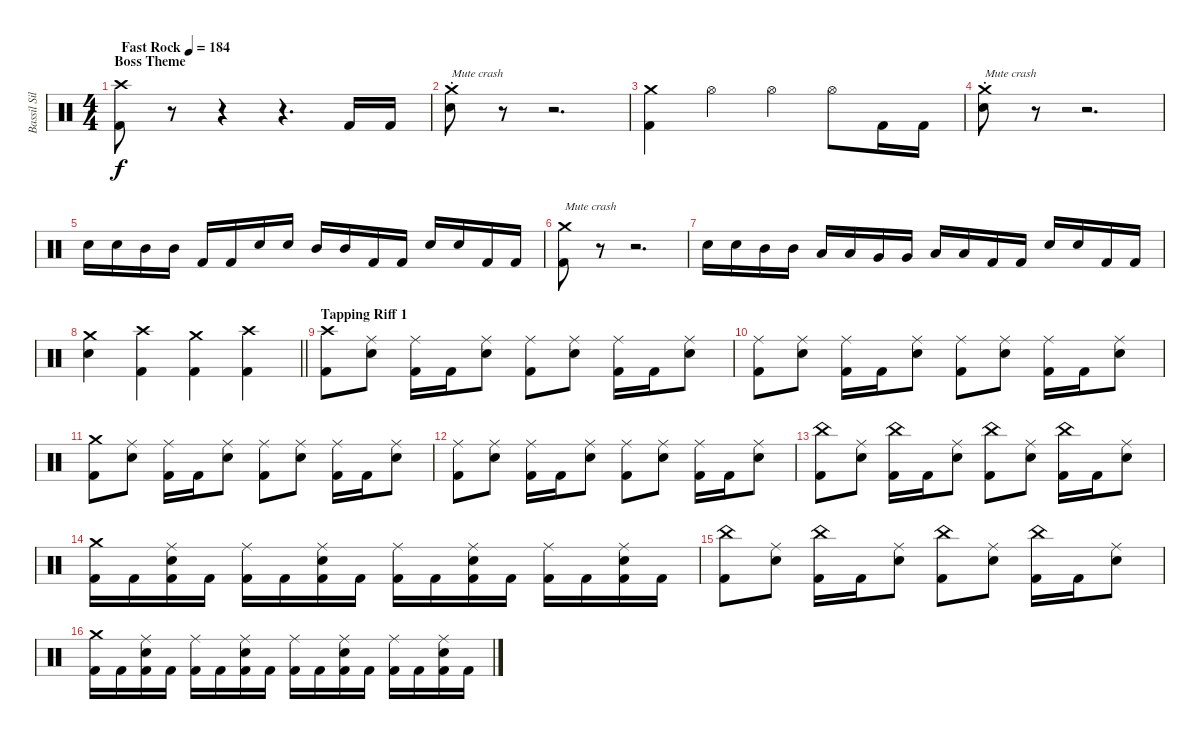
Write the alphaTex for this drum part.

\track ("Bassil Silver-Hajo" "Bassil Sil") {instrument percussion}
\staff {score}
\articulation defaults
\ts (4 4)
\section ("" "Boss Theme")
\tempo (184 "Fast Rock")
\clef neutral
\ks c
("Crash high (hit)" "Kick (hit) 2").8{dy f} r.8 r.4 r.4{d} "Kick (hit) 2".16 "Kick (hit) 2".16 |
("Crash medium (hit)"{st} "Snare (hit) 2").8{txt "Mute crash"} r.8 r.2{d} |
("Crash medium (hit)" "Kick (hit) 2").4 "Hi-Hat (open)".4 "Hi-Hat (open)".4 "Hi-Hat (open)".8 "Kick (hit) 2".16 "Kick (hit) 2".16 |
("Crash medium (hit)"{st} "Snare (hit) 2").8{txt "Mute crash"} r.8 r.2{d} |
"Snare (hit) 2".16 "Snare (hit) 2".16 "Mid Tom (hit)".16 "Mid Tom (hit)".16 "Kick (hit) 2".16 "Kick (hit) 2".16 "Snare (hit) 2".16 "Snare (hit) 2".16 "Mid Tom (hit)".16 "Mid Tom (hit)".16 "Kick (hit) 2".16 "Kick (hit) 2".16 "Snare (hit) 2".16 "Snare (hit) 2".16 "Kick (hit) 2".16 "Kick (hit) 2".16 |
("Crash medium (hit)" "Kick (hit) 2").8{txt "Mute crash"} r.8 r.2{d} |
"Snare (hit) 2".16 "Snare (hit) 2".16 "Mid Tom (hit)".16 "Mid Tom (hit)".16 "Low Tom (hit)".16 "Low Tom (hit)".16 "Very Low Tom (hit)".16 "Very Low Tom (hit)".16 "Low Floor Tom (hit)".16 "Low Floor Tom (hit)".16 "Kick (hit) 2".16 "Kick (hit) 2".16 "Snare (hit) 2".16 "Snare (hit) 2".16 "Kick (hit) 2".16 "Kick (hit) 2".16 |
\barLineRight lightlight
("Crash medium (hit)" "Snare (hit) 2").4 ("Crash high (hit)" "Kick (hit) 2").4 ("Crash medium (hit)" "Kick (hit) 2").4 ("Crash high (hit)" "Kick (hit) 2").4 |
\section ("" "Tapping Riff 1")
("Crash high (hit)" "Kick (hit) 2").8 ("Ride (middle)" "Snare (hit) 2").8 ("Ride (middle)" "Kick (hit) 2").16 "Kick (hit) 2".16 ("Ride (middle)" "Snare (hit) 2").8 ("Ride (middle)" "Kick (hit) 2").8 ("Ride (middle)" "Snare (hit) 2").8 ("Ride (middle)" "Kick (hit) 2").16 "Kick (hit) 2".16 ("Ride (middle)" "Snare (hit) 2").8 |
("Ride (middle)" "Kick (hit) 2").8 ("Ride (middle)" "Snare (hit) 2").8 ("Ride (middle)" "Kick (hit) 2").16 "Kick (hit) 2".16 ("Ride (middle)" "Snare (hit) 2").8 ("Ride (middle)" "Kick (hit) 2").8 ("Ride (middle)" "Snare (hit) 2").8 ("Ride (middle)" "Kick (hit) 2").16 "Kick (hit) 2".16 ("Ride (middle)" "Snare (hit) 2").8 |
("Crash medium (hit)" "Kick (hit) 2").8 ("Ride (middle)" "Snare (hit) 2").8 ("Ride (middle)" "Kick (hit) 2").16 "Kick (hit) 2".16 ("Ride (middle)" "Snare (hit) 2").8 ("Ride (middle)" "Kick (hit) 2").8 ("Ride (middle)" "Snare (hit) 2").8 ("Ride (middle)" "Kick (hit) 2").16 "Kick (hit) 2".16 ("Ride (middle)" "Snare (hit) 2").8 |
("Ride (middle)" "Kick (hit) 2").8 ("Ride (middle)" "Snare (hit) 2").8 ("Ride (middle)" "Kick (hit) 2").16 "Kick (hit) 2".16 ("Ride (middle)" "Snare (hit) 2").8 ("Ride (middle)" "Kick (hit) 2").8 ("Ride (middle)" "Snare (hit) 2").8 ("Ride (middle)" "Kick (hit) 2").16 "Kick (hit) 2".16 ("Ride (middle)" "Snare (hit) 2").8 |
("China (hit)" "Kick (hit) 2").8 ("Ride (middle)" "Snare (hit) 2").8 ("China (hit)" "Kick (hit) 2").16 "Kick (hit) 2".16 ("Ride (middle)" "Snare (hit) 2").8 ("China (hit)" "Kick (hit) 2").8 ("Ride (middle)" "Snare (hit) 2").8 ("China (hit)" "Kick (hit) 2").16 "Kick (hit) 2".16 ("Ride (middle)" "Snare (hit) 2").8 |
("Crash medium (hit)" "Kick (hit) 2").16 "Kick (hit) 2".16 ("Ride (middle)" "Snare (hit) 2" "Kick (hit) 2").16 "Kick (hit) 2".16 ("Ride (middle)" "Kick (hit) 2").16 "Kick (hit) 2".16 ("Ride (middle)" "Snare (hit) 2" "Kick (hit) 2").16 "Kick (hit) 2".16 ("Ride (middle)" "Kick (hit) 2").16 "Kick (hit) 2".16 ("Ride (middle)" "Snare (hit) 2" "Kick (hit) 2").16 "Kick (hit) 2".16 ("Ride (middle)" "Kick (hit) 2").16 "Kick (hit) 2".16 ("Ride (middle)" "Snare (hit) 2" "Kick (hit) 2").16 "Kick (hit) 2".16 |
("China (hit)" "Kick (hit) 2").8 ("Ride (middle)" "Snare (hit) 2").8 ("China (hit)" "Kick (hit) 2").16 "Kick (hit) 2".16 ("Ride (middle)" "Snare (hit) 2").8 ("China (hit)" "Kick (hit) 2").8 ("Ride (middle)" "Snare (hit) 2").8 ("China (hit)" "Kick (hit) 2").16 "Kick (hit) 2".16 ("Ride (middle)" "Snare (hit) 2").8 |
("Crash medium (hit)" "Kick (hit) 2").16 "Kick (hit) 2".16 ("Ride (middle)" "Snare (hit) 2" "Kick (hit) 2").16 "Kick (hit) 2".16 ("Ride (middle)" "Kick (hit) 2").16 "Kick (hit) 2".16 ("Ride (middle)" "Snare (hit) 2" "Kick (hit) 2").16 "Kick (hit) 2".16 ("Ride (middle)" "Kick (hit) 2").16 "Kick (hit) 2".16 ("Ride (middle)" "Snare (hit) 2" "Kick (hit) 2").16 "Kick (hit) 2".16 ("Ride (middle)" "Kick (hit) 2").16 "Kick (hit) 2".16 ("Ride (middle)" "Snare (hit) 2" "Kick (hit) 2").16 "Kick (hit) 2".16
